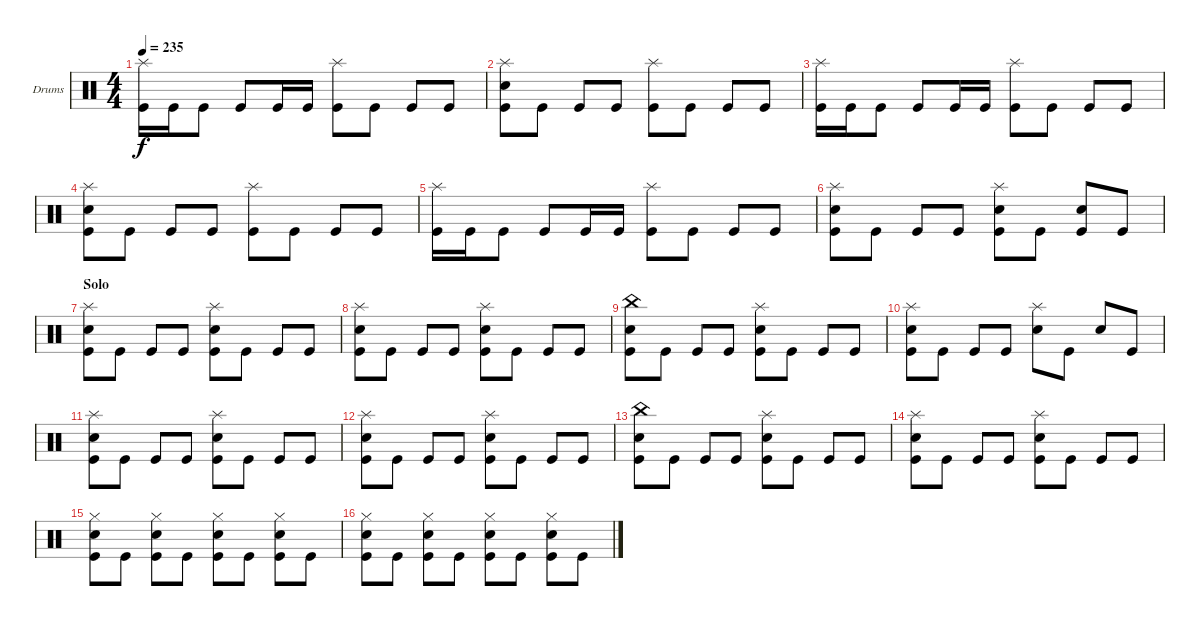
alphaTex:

\defaultSystemsLayout 4
\bracketExtendMode groupsimilarinstruments
\firstSystemTrackNameOrientation horizontal
\otherSystemsTrackNameOrientation horizontal
\track ("Drumkit" "Drums") {instrument percussion}
\staff {score}
\articulation defaults
\ts (4 4)
\tempo 235
\clef neutral
\ks c
("Splash (hit)" "Kick (hit)").16{dy f} "Kick (hit)".16 "Kick (hit)".8 "Kick (hit)".8 "Kick (hit)".16 "Kick (hit)".16 ("Kick (hit)" "Splash (hit)").8 "Kick (hit)".8 "Kick (hit)".8 "Kick (hit)".8 |
("Kick (hit)" "Splash (hit)" "Snare (hit) 2").8 "Kick (hit)".8 "Kick (hit)".8 "Kick (hit)".8 ("Kick (hit)" "Splash (hit)").8 "Kick (hit)".8 "Kick (hit)".8 "Kick (hit)".8 |
("Splash (hit)" "Kick (hit)").16 "Kick (hit)".16 "Kick (hit)".8 "Kick (hit)".8 "Kick (hit)".16 "Kick (hit)".16 ("Kick (hit)" "Splash (hit)").8 "Kick (hit)".8 "Kick (hit)".8 "Kick (hit)".8 |
("Kick (hit)" "Splash (hit)" "Snare (hit) 2").8 "Kick (hit)".8 "Kick (hit)".8 "Kick (hit)".8 ("Kick (hit)" "Splash (hit)").8 "Kick (hit)".8 "Kick (hit)".8 "Kick (hit)".8 |
("Splash (hit)" "Kick (hit)").16 "Kick (hit)".16 "Kick (hit)".8 "Kick (hit)".8 "Kick (hit)".16 "Kick (hit)".16 ("Kick (hit)" "Splash (hit)").8 "Kick (hit)".8 "Kick (hit)".8 "Kick (hit)".8 |
("Kick (hit)" "Splash (hit)" "Snare (hit) 2").8 "Kick (hit)".8 "Kick (hit)".8 "Kick (hit)".8 ("Kick (hit)" "Splash (hit)" "Snare (hit) 2").8 "Kick (hit)".8 ("Kick (hit)" "Snare (hit) 2").8 "Kick (hit)".8 |
\section ("" "Solo")
("Kick (hit)" "Splash (hit)" "Snare (hit) 2").8 "Kick (hit)".8 "Kick (hit)".8 "Kick (hit)".8 ("Kick (hit)" "Splash (hit)" "Snare (hit) 2").8 "Kick (hit)".8 "Kick (hit)".8 "Kick (hit)".8 |
("Kick (hit)" "Splash (hit)" "Snare (hit) 2").8 "Kick (hit)".8 "Kick (hit)".8 "Kick (hit)".8 ("Kick (hit)" "Splash (hit)" "Snare (hit) 2").8 "Kick (hit)".8 "Kick (hit)".8 "Kick (hit)".8 |
("Kick (hit)" "Snare (hit) 2" "China (hit)").8 "Kick (hit)".8 "Kick (hit)".8 "Kick (hit)".8 ("Kick (hit)" "Splash (hit)" "Snare (hit) 2").8 "Kick (hit)".8 "Kick (hit)".8 "Kick (hit)".8 |
("Kick (hit)" "Splash (hit)" "Snare (hit) 2").8 "Kick (hit)".8 "Kick (hit)".8 "Kick (hit)".8 ("Splash (hit)" "Snare (hit) 2").8 "Kick (hit)".8 "Snare (hit) 2".8 "Kick (hit)".8 |
("Kick (hit)" "Splash (hit)" "Snare (hit) 2").8 "Kick (hit)".8 "Kick (hit)".8 "Kick (hit)".8 ("Kick (hit)" "Splash (hit)" "Snare (hit) 2").8 "Kick (hit)".8 "Kick (hit)".8 "Kick (hit)".8 |
("Kick (hit)" "Splash (hit)" "Snare (hit) 2").8 "Kick (hit)".8 "Kick (hit)".8 "Kick (hit)".8 ("Kick (hit)" "Splash (hit)" "Snare (hit) 2").8 "Kick (hit)".8 "Kick (hit)".8 "Kick (hit)".8 |
("Kick (hit)" "Snare (hit) 2" "China (hit)").8 "Kick (hit)".8 "Kick (hit)".8 "Kick (hit)".8 ("Kick (hit)" "Splash (hit)" "Snare (hit) 2").8 "Kick (hit)".8 "Kick (hit)".8 "Kick (hit)".8 |
("Kick (hit)" "Splash (hit)" "Snare (hit) 2").8 "Kick (hit)".8 "Kick (hit)".8 "Kick (hit)".8 ("Kick (hit)" "Splash (hit)" "Snare (hit) 2").8 "Kick (hit)".8 "Kick (hit)".8 "Kick (hit)".8 |
("Kick (hit)" "Snare (hit) 2" "Hi-Hat (closed)").8 "Kick (hit)".8 ("Kick (hit)" "Snare (hit) 2" "Hi-Hat (closed)").8 "Kick (hit)".8 ("Kick (hit)" "Snare (hit) 2" "Hi-Hat (closed)").8 "Kick (hit)".8 ("Kick (hit)" "Snare (hit) 2" "Hi-Hat (closed)").8 "Kick (hit)".8 |
("Kick (hit)" "Snare (hit) 2" "Hi-Hat (closed)").8 "Kick (hit)".8 ("Kick (hit)" "Snare (hit) 2" "Hi-Hat (closed)").8 "Kick (hit)".8 ("Kick (hit)" "Snare (hit) 2" "Hi-Hat (closed)").8 "Kick (hit)".8 ("Kick (hit)" "Snare (hit) 2" "Hi-Hat (closed)").8 "Kick (hit)".8
